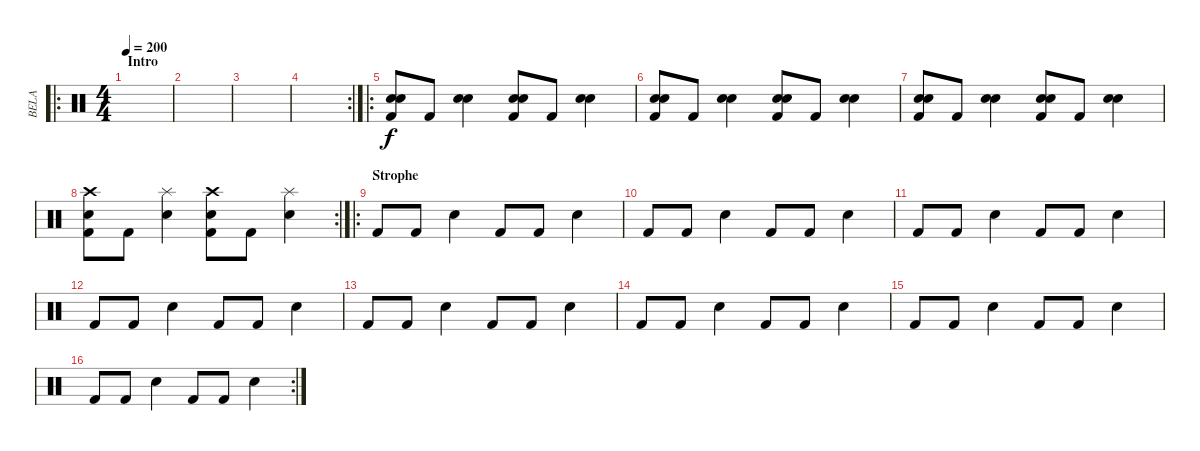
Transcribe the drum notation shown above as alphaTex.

\track ("BELA" "BELA") {instrument percussion}
\staff {score}
\articulation defaults
\ro
\ts (4 4)
\section ("" "Intro")
\tempo 200
\clef neutral
\ks c
|
|
|
\rc 2
|
\ro
("Electric Snare (hit)" "Snare (hit) 2" "Kick (hit) 2").8 "Kick (hit) 2".8 ("Electric Snare (hit)" "Snare (hit) 2").4 ("Electric Snare (hit)" "Snare (hit) 2" "Kick (hit) 2").8 "Kick (hit) 2".8 ("Electric Snare (hit)" "Snare (hit) 2").4 |
("Electric Snare (hit)" "Snare (hit) 2" "Kick (hit) 2").8 "Kick (hit) 2".8 ("Electric Snare (hit)" "Snare (hit) 2").4 ("Electric Snare (hit)" "Snare (hit) 2" "Kick (hit) 2").8 "Kick (hit) 2".8 ("Electric Snare (hit)" "Snare (hit) 2").4 |
("Electric Snare (hit)" "Snare (hit) 2" "Kick (hit) 2").8 "Kick (hit) 2".8 ("Electric Snare (hit)" "Snare (hit) 2").4 ("Electric Snare (hit)" "Snare (hit) 2" "Kick (hit) 2").8 "Kick (hit) 2".8 ("Electric Snare (hit)" "Snare (hit) 2").4 |
\rc 2
("Crash high (hit)" "Electric Snare (hit)" "Kick (hit) 2").8 "Kick (hit) 2".8 ("Splash (hit)" "Electric Snare (hit)").4 ("Crash high (hit)" "Electric Snare (hit)" "Kick (hit) 2").8 "Kick (hit) 2".8 ("Splash (hit)" "Electric Snare (hit)").4 |
\ro
\section ("" "Strophe")
"Kick (hit) 2".8 "Kick (hit) 2".8 "Snare (hit) 2".4 "Kick (hit) 2".8 "Kick (hit) 2".8 "Snare (hit) 2".4 |
"Kick (hit) 2".8 "Kick (hit) 2".8 "Snare (hit) 2".4 "Kick (hit) 2".8 "Kick (hit) 2".8 "Snare (hit) 2".4 |
"Kick (hit) 2".8 "Kick (hit) 2".8 "Snare (hit) 2".4 "Kick (hit) 2".8 "Kick (hit) 2".8 "Snare (hit) 2".4 |
"Kick (hit) 2".8 "Kick (hit) 2".8 "Snare (hit) 2".4 "Kick (hit) 2".8 "Kick (hit) 2".8 "Snare (hit) 2".4 |
"Kick (hit) 2".8 "Kick (hit) 2".8 "Snare (hit) 2".4 "Kick (hit) 2".8 "Kick (hit) 2".8 "Snare (hit) 2".4 |
"Kick (hit) 2".8 "Kick (hit) 2".8 "Snare (hit) 2".4 "Kick (hit) 2".8 "Kick (hit) 2".8 "Snare (hit) 2".4 |
"Kick (hit) 2".8 "Kick (hit) 2".8 "Snare (hit) 2".4 "Kick (hit) 2".8 "Kick (hit) 2".8 "Snare (hit) 2".4 |
\rc 2 "Kick (hit) 2".8 "Kick (hit) 2".8 "Snare (hit) 2".4 "Kick (hit) 2".8 "Kick (hit) 2".8 "Snare (hit) 2".4
